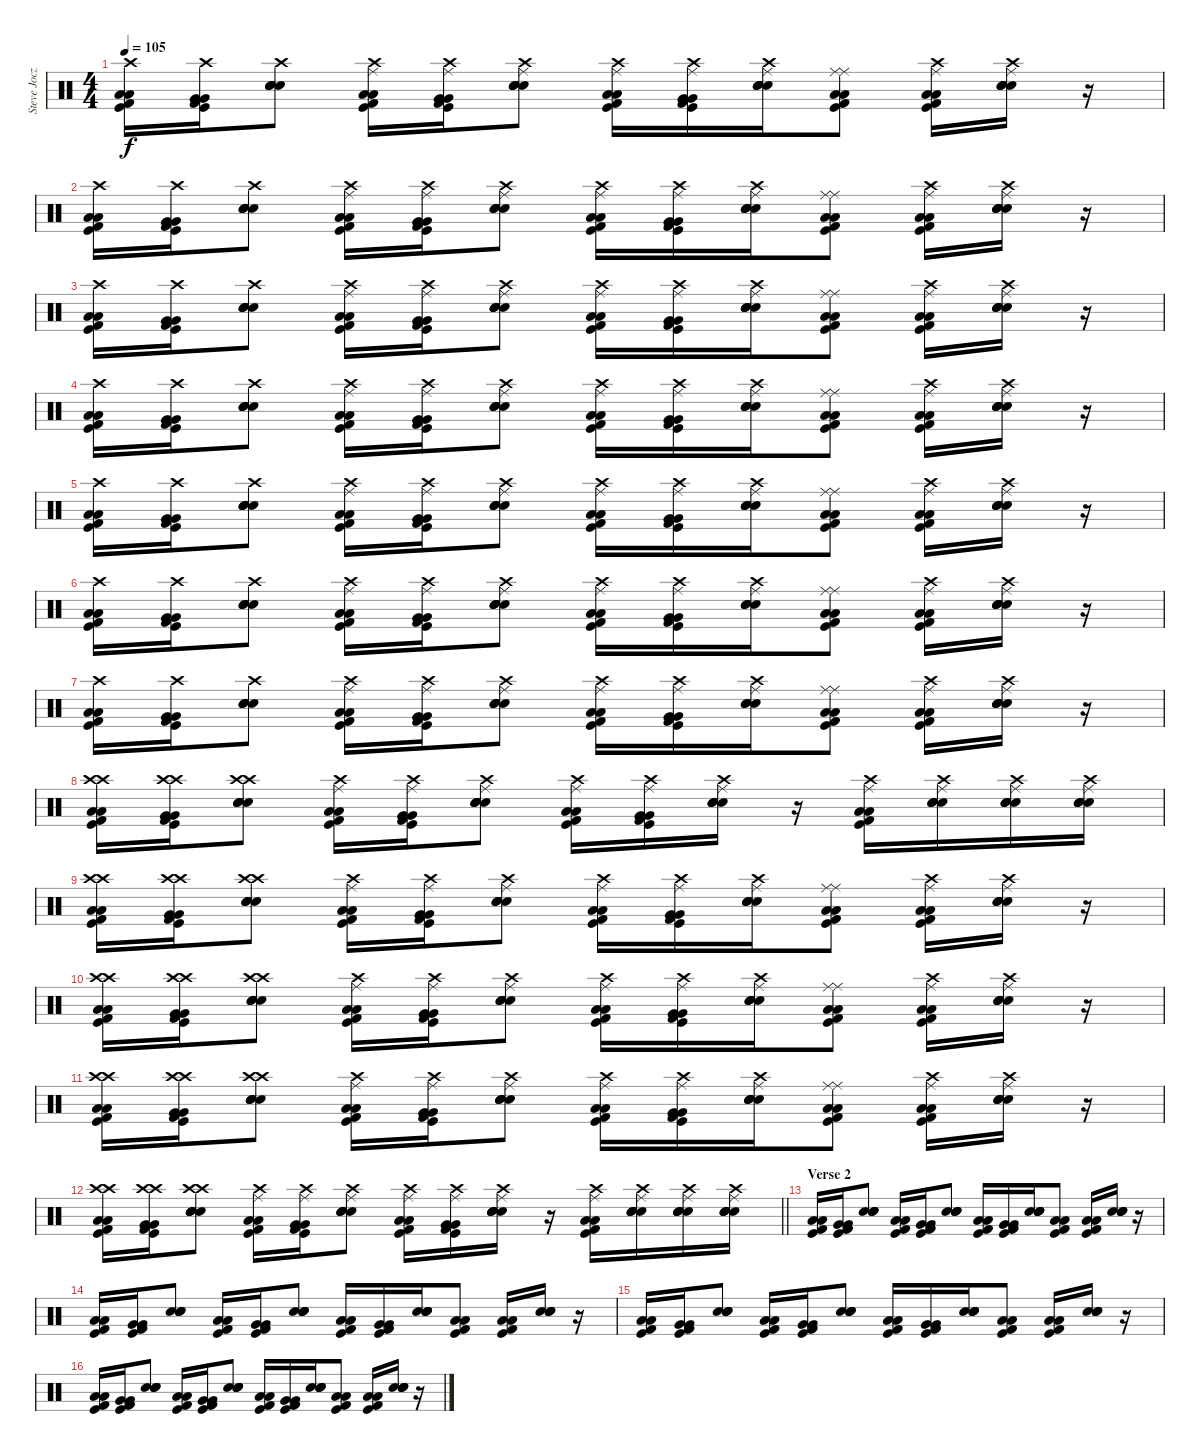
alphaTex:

\track ("Steve Jocz" "Steve Jocz") {instrument percussion}
\staff {score}
\articulation defaults
\ts (4 4)
\tempo 105
\clef neutral
\ks c
("Low Floor Tom (hit)" "Crash high (hit)" "Low Floor Tom (hit)" "Kick (hit)" "Kick (hit) 2").16{dy f} ("Very Low Tom (hit)" "Crash high (hit)" "Very Low Tom (hit)" "Kick (hit)" "Kick (hit) 2").16 ("Snare (hit) 2" "Crash high (hit)" "Snare (hit) 2" "Electric Snare (hit)" "Electric Snare (hit)").8 ("Low Floor Tom (hit)" "Ride (middle)" "Low Floor Tom (hit)" "Kick (hit)" "Crash high (hit)" "Kick (hit) 2").16 ("Very Low Tom (hit)" "Ride (middle)" "Very Low Tom (hit)" "Kick (hit)" "Crash high (hit)" "Kick (hit) 2").16 ("Snare (hit) 2" "Ride (middle)" "Snare (hit) 2" "Electric Snare (hit)" "Crash high (hit)" "Electric Snare (hit)").8 ("Low Floor Tom (hit)" "Ride (middle)" "Low Floor Tom (hit)" "Kick (hit)" "Crash high (hit)" "Kick (hit) 2").16 ("Very Low Tom (hit)" "Ride (middle)" "Very Low Tom (hit)" "Kick (hit)" "Crash high (hit)" "Kick (hit) 2").16 ("Snare (hit) 2" "Ride (middle)" "Snare (hit) 2" "Electric Snare (hit)" "Crash high (hit)" "Electric Snare (hit)").16 ("Low Floor Tom (hit)" "Ride (middle)" "Low Floor Tom (hit)" "Kick (hit)" "Ride (middle)" "Kick (hit) 2").8 ("Low Floor Tom (hit)" "Ride (middle)" "Low Floor Tom (hit)" "Kick (hit)" "Crash high (hit)" "Kick (hit) 2").16 ("Snare (hit) 2" "Ride (middle)" "Snare (hit) 2" "Electric Snare (hit)" "Crash high (hit)" "Electric Snare (hit)").16 r.16 |
("Low Floor Tom (hit)" "Crash high (hit)" "Low Floor Tom (hit)" "Kick (hit)" "Kick (hit) 2").16 ("Very Low Tom (hit)" "Crash high (hit)" "Very Low Tom (hit)" "Kick (hit)" "Kick (hit) 2").16 ("Snare (hit) 2" "Crash high (hit)" "Snare (hit) 2" "Electric Snare (hit)" "Electric Snare (hit)").8 ("Low Floor Tom (hit)" "Ride (middle)" "Low Floor Tom (hit)" "Kick (hit)" "Crash high (hit)" "Kick (hit) 2").16 ("Very Low Tom (hit)" "Ride (middle)" "Very Low Tom (hit)" "Kick (hit)" "Crash high (hit)" "Kick (hit) 2").16 ("Snare (hit) 2" "Ride (middle)" "Snare (hit) 2" "Electric Snare (hit)" "Crash high (hit)" "Electric Snare (hit)").8 ("Low Floor Tom (hit)" "Ride (middle)" "Low Floor Tom (hit)" "Kick (hit)" "Crash high (hit)" "Kick (hit) 2").16 ("Very Low Tom (hit)" "Ride (middle)" "Very Low Tom (hit)" "Kick (hit)" "Crash high (hit)" "Kick (hit) 2").16 ("Snare (hit) 2" "Ride (middle)" "Snare (hit) 2" "Electric Snare (hit)" "Crash high (hit)" "Electric Snare (hit)").16 ("Low Floor Tom (hit)" "Ride (middle)" "Low Floor Tom (hit)" "Kick (hit)" "Ride (middle)" "Kick (hit) 2").8 ("Low Floor Tom (hit)" "Ride (middle)" "Low Floor Tom (hit)" "Kick (hit)" "Crash high (hit)" "Kick (hit) 2").16 ("Snare (hit) 2" "Ride (middle)" "Snare (hit) 2" "Electric Snare (hit)" "Crash high (hit)" "Electric Snare (hit)").16 r.16 |
("Low Floor Tom (hit)" "Crash high (hit)" "Low Floor Tom (hit)" "Kick (hit)" "Kick (hit) 2").16 ("Very Low Tom (hit)" "Crash high (hit)" "Very Low Tom (hit)" "Kick (hit)" "Kick (hit) 2").16 ("Snare (hit) 2" "Crash high (hit)" "Snare (hit) 2" "Electric Snare (hit)" "Electric Snare (hit)").8 ("Low Floor Tom (hit)" "Ride (middle)" "Low Floor Tom (hit)" "Kick (hit)" "Crash high (hit)" "Kick (hit) 2").16 ("Very Low Tom (hit)" "Ride (middle)" "Very Low Tom (hit)" "Kick (hit)" "Crash high (hit)" "Kick (hit) 2").16 ("Snare (hit) 2" "Ride (middle)" "Snare (hit) 2" "Electric Snare (hit)" "Crash high (hit)" "Electric Snare (hit)").8 ("Low Floor Tom (hit)" "Ride (middle)" "Low Floor Tom (hit)" "Kick (hit)" "Crash high (hit)" "Kick (hit) 2").16 ("Very Low Tom (hit)" "Ride (middle)" "Very Low Tom (hit)" "Kick (hit)" "Crash high (hit)" "Kick (hit) 2").16 ("Snare (hit) 2" "Ride (middle)" "Snare (hit) 2" "Electric Snare (hit)" "Crash high (hit)" "Electric Snare (hit)").16 ("Low Floor Tom (hit)" "Ride (middle)" "Low Floor Tom (hit)" "Kick (hit)" "Ride (middle)" "Kick (hit) 2").8 ("Low Floor Tom (hit)" "Ride (middle)" "Low Floor Tom (hit)" "Kick (hit)" "Crash high (hit)" "Kick (hit) 2").16 ("Snare (hit) 2" "Ride (middle)" "Snare (hit) 2" "Electric Snare (hit)" "Crash high (hit)" "Electric Snare (hit)").16 r.16 |
("Low Floor Tom (hit)" "Crash high (hit)" "Low Floor Tom (hit)" "Kick (hit)" "Kick (hit) 2").16 ("Very Low Tom (hit)" "Crash high (hit)" "Very Low Tom (hit)" "Kick (hit)" "Kick (hit) 2").16 ("Snare (hit) 2" "Crash high (hit)" "Snare (hit) 2" "Electric Snare (hit)" "Electric Snare (hit)").8 ("Low Floor Tom (hit)" "Ride (middle)" "Low Floor Tom (hit)" "Kick (hit)" "Crash high (hit)" "Kick (hit) 2").16 ("Very Low Tom (hit)" "Ride (middle)" "Very Low Tom (hit)" "Kick (hit)" "Crash high (hit)" "Kick (hit) 2").16 ("Snare (hit) 2" "Ride (middle)" "Snare (hit) 2" "Electric Snare (hit)" "Crash high (hit)" "Electric Snare (hit)").8 ("Low Floor Tom (hit)" "Ride (middle)" "Low Floor Tom (hit)" "Kick (hit)" "Crash high (hit)" "Kick (hit) 2").16 ("Very Low Tom (hit)" "Ride (middle)" "Very Low Tom (hit)" "Kick (hit)" "Crash high (hit)" "Kick (hit) 2").16 ("Snare (hit) 2" "Ride (middle)" "Snare (hit) 2" "Electric Snare (hit)" "Crash high (hit)" "Electric Snare (hit)").16 ("Low Floor Tom (hit)" "Ride (middle)" "Low Floor Tom (hit)" "Kick (hit)" "Ride (middle)" "Kick (hit) 2").8 ("Low Floor Tom (hit)" "Ride (middle)" "Low Floor Tom (hit)" "Kick (hit)" "Crash high (hit)" "Kick (hit) 2").16 ("Snare (hit) 2" "Ride (middle)" "Snare (hit) 2" "Electric Snare (hit)" "Crash high (hit)" "Electric Snare (hit)").16 r.16 |
("Low Floor Tom (hit)" "Crash high (hit)" "Low Floor Tom (hit)" "Kick (hit)" "Kick (hit) 2").16 ("Very Low Tom (hit)" "Crash high (hit)" "Very Low Tom (hit)" "Kick (hit)" "Kick (hit) 2").16 ("Snare (hit) 2" "Crash high (hit)" "Snare (hit) 2" "Electric Snare (hit)" "Electric Snare (hit)").8 ("Low Floor Tom (hit)" "Ride (middle)" "Low Floor Tom (hit)" "Kick (hit)" "Crash high (hit)" "Kick (hit) 2").16 ("Very Low Tom (hit)" "Ride (middle)" "Very Low Tom (hit)" "Kick (hit)" "Crash high (hit)" "Kick (hit) 2").16 ("Snare (hit) 2" "Ride (middle)" "Snare (hit) 2" "Electric Snare (hit)" "Crash high (hit)" "Electric Snare (hit)").8 ("Low Floor Tom (hit)" "Ride (middle)" "Low Floor Tom (hit)" "Kick (hit)" "Crash high (hit)" "Kick (hit) 2").16 ("Very Low Tom (hit)" "Ride (middle)" "Very Low Tom (hit)" "Kick (hit)" "Crash high (hit)" "Kick (hit) 2").16 ("Snare (hit) 2" "Ride (middle)" "Snare (hit) 2" "Electric Snare (hit)" "Crash high (hit)" "Electric Snare (hit)").16 ("Low Floor Tom (hit)" "Ride (middle)" "Low Floor Tom (hit)" "Kick (hit)" "Ride (middle)" "Kick (hit) 2").8 ("Low Floor Tom (hit)" "Ride (middle)" "Low Floor Tom (hit)" "Kick (hit)" "Crash high (hit)" "Kick (hit) 2").16 ("Snare (hit) 2" "Ride (middle)" "Snare (hit) 2" "Electric Snare (hit)" "Crash high (hit)" "Electric Snare (hit)").16 r.16 |
("Low Floor Tom (hit)" "Crash high (hit)" "Low Floor Tom (hit)" "Kick (hit)" "Kick (hit) 2").16 ("Very Low Tom (hit)" "Crash high (hit)" "Very Low Tom (hit)" "Kick (hit)" "Kick (hit) 2").16 ("Snare (hit) 2" "Crash high (hit)" "Snare (hit) 2" "Electric Snare (hit)" "Electric Snare (hit)").8 ("Low Floor Tom (hit)" "Ride (middle)" "Low Floor Tom (hit)" "Kick (hit)" "Crash high (hit)" "Kick (hit) 2").16 ("Very Low Tom (hit)" "Ride (middle)" "Very Low Tom (hit)" "Kick (hit)" "Crash high (hit)" "Kick (hit) 2").16 ("Snare (hit) 2" "Ride (middle)" "Snare (hit) 2" "Electric Snare (hit)" "Crash high (hit)" "Electric Snare (hit)").8 ("Low Floor Tom (hit)" "Ride (middle)" "Low Floor Tom (hit)" "Kick (hit)" "Crash high (hit)" "Kick (hit) 2").16 ("Very Low Tom (hit)" "Ride (middle)" "Very Low Tom (hit)" "Kick (hit)" "Crash high (hit)" "Kick (hit) 2").16 ("Snare (hit) 2" "Ride (middle)" "Snare (hit) 2" "Electric Snare (hit)" "Crash high (hit)" "Electric Snare (hit)").16 ("Low Floor Tom (hit)" "Ride (middle)" "Low Floor Tom (hit)" "Kick (hit)" "Ride (middle)" "Kick (hit) 2").8 ("Low Floor Tom (hit)" "Ride (middle)" "Low Floor Tom (hit)" "Kick (hit)" "Crash high (hit)" "Kick (hit) 2").16 ("Snare (hit) 2" "Ride (middle)" "Snare (hit) 2" "Electric Snare (hit)" "Crash high (hit)" "Electric Snare (hit)").16 r.16 |
("Low Floor Tom (hit)" "Crash high (hit)" "Low Floor Tom (hit)" "Kick (hit)" "Kick (hit) 2").16 ("Very Low Tom (hit)" "Crash high (hit)" "Very Low Tom (hit)" "Kick (hit)" "Kick (hit) 2").16 ("Snare (hit) 2" "Crash high (hit)" "Snare (hit) 2" "Electric Snare (hit)" "Electric Snare (hit)").8 ("Low Floor Tom (hit)" "Ride (middle)" "Low Floor Tom (hit)" "Kick (hit)" "Crash high (hit)" "Kick (hit) 2").16 ("Very Low Tom (hit)" "Ride (middle)" "Very Low Tom (hit)" "Kick (hit)" "Crash high (hit)" "Kick (hit) 2").16 ("Snare (hit) 2" "Ride (middle)" "Snare (hit) 2" "Electric Snare (hit)" "Crash high (hit)" "Electric Snare (hit)").8 ("Low Floor Tom (hit)" "Ride (middle)" "Low Floor Tom (hit)" "Kick (hit)" "Crash high (hit)" "Kick (hit) 2").16 ("Very Low Tom (hit)" "Ride (middle)" "Very Low Tom (hit)" "Kick (hit)" "Crash high (hit)" "Kick (hit) 2").16 ("Snare (hit) 2" "Ride (middle)" "Snare (hit) 2" "Electric Snare (hit)" "Crash high (hit)" "Electric Snare (hit)").16 ("Low Floor Tom (hit)" "Ride (middle)" "Low Floor Tom (hit)" "Kick (hit)" "Ride (middle)" "Kick (hit) 2").8 ("Low Floor Tom (hit)" "Ride (middle)" "Low Floor Tom (hit)" "Kick (hit)" "Crash high (hit)" "Kick (hit) 2").16 ("Snare (hit) 2" "Ride (middle)" "Snare (hit) 2" "Electric Snare (hit)" "Crash high (hit)" "Electric Snare (hit)").16 r.16 |
("Low Floor Tom (hit)" "Crash high (hit)" "Low Floor Tom (hit)" "Kick (hit)" "Crash high (hit)" "Kick (hit) 2").16 ("Very Low Tom (hit)" "Crash high (hit)" "Very Low Tom (hit)" "Kick (hit)" "Crash high (hit)" "Kick (hit) 2").16 ("Snare (hit) 2" "Crash high (hit)" "Snare (hit) 2" "Electric Snare (hit)" "Crash high (hit)" "Electric Snare (hit)").8 ("Low Floor Tom (hit)" "Ride (middle)" "Low Floor Tom (hit)" "Kick (hit)" "Crash high (hit)" "Kick (hit) 2").16 ("Very Low Tom (hit)" "Ride (middle)" "Very Low Tom (hit)" "Kick (hit)" "Crash high (hit)" "Kick (hit) 2").16 ("Snare (hit) 2" "Ride (middle)" "Snare (hit) 2" "Electric Snare (hit)" "Crash high (hit)" "Electric Snare (hit)").8 ("Low Floor Tom (hit)" "Ride (middle)" "Low Floor Tom (hit)" "Kick (hit)" "Crash high (hit)" "Kick (hit) 2").16 ("Very Low Tom (hit)" "Ride (middle)" "Very Low Tom (hit)" "Kick (hit)" "Crash high (hit)" "Kick (hit) 2").16 ("Snare (hit) 2" "Ride (middle)" "Snare (hit) 2" "Electric Snare (hit)" "Crash high (hit)" "Electric Snare (hit)").16 r.16 ("Low Floor Tom (hit)" "Ride (middle)" "Low Floor Tom (hit)" "Kick (hit)" "Crash high (hit)" "Kick (hit) 2").16 ("Snare (hit) 2" "Ride (middle)" "Snare (hit) 2" "Electric Snare (hit)" "Crash high (hit)" "Electric Snare (hit)").16 ("Snare (hit) 2" "Ride (middle)" "Snare (hit) 2" "Electric Snare (hit)" "Crash high (hit)" "Electric Snare (hit)").16 ("Snare (hit) 2" "Ride (middle)" "Snare (hit) 2" "Electric Snare (hit)" "Crash high (hit)" "Electric Snare (hit)").16 |
("Low Floor Tom (hit)" "Crash high (hit)" "Low Floor Tom (hit)" "Kick (hit)" "Crash high (hit)" "Kick (hit) 2").16 ("Very Low Tom (hit)" "Crash high (hit)" "Very Low Tom (hit)" "Kick (hit)" "Crash high (hit)" "Kick (hit) 2").16 ("Snare (hit) 2" "Crash high (hit)" "Snare (hit) 2" "Electric Snare (hit)" "Crash high (hit)" "Electric Snare (hit)").8 ("Low Floor Tom (hit)" "Ride (middle)" "Low Floor Tom (hit)" "Kick (hit)" "Crash high (hit)" "Kick (hit) 2").16 ("Very Low Tom (hit)" "Ride (middle)" "Very Low Tom (hit)" "Kick (hit)" "Crash high (hit)" "Kick (hit) 2").16 ("Snare (hit) 2" "Ride (middle)" "Snare (hit) 2" "Electric Snare (hit)" "Crash high (hit)" "Electric Snare (hit)").8 ("Low Floor Tom (hit)" "Ride (middle)" "Low Floor Tom (hit)" "Kick (hit)" "Crash high (hit)" "Kick (hit) 2").16 ("Very Low Tom (hit)" "Ride (middle)" "Very Low Tom (hit)" "Kick (hit)" "Crash high (hit)" "Kick (hit) 2").16 ("Snare (hit) 2" "Ride (middle)" "Snare (hit) 2" "Electric Snare (hit)" "Crash high (hit)" "Electric Snare (hit)").16 ("Low Floor Tom (hit)" "Ride (middle)" "Low Floor Tom (hit)" "Kick (hit)" "Ride (middle)" "Kick (hit) 2").8 ("Low Floor Tom (hit)" "Ride (middle)" "Low Floor Tom (hit)" "Kick (hit)" "Crash high (hit)" "Kick (hit) 2").16 ("Snare (hit) 2" "Ride (middle)" "Snare (hit) 2" "Electric Snare (hit)" "Crash high (hit)" "Electric Snare (hit)").16 r.16 |
("Low Floor Tom (hit)" "Crash high (hit)" "Low Floor Tom (hit)" "Kick (hit)" "Crash high (hit)" "Kick (hit) 2").16 ("Very Low Tom (hit)" "Crash high (hit)" "Very Low Tom (hit)" "Kick (hit)" "Crash high (hit)" "Kick (hit) 2").16 ("Snare (hit) 2" "Crash high (hit)" "Snare (hit) 2" "Electric Snare (hit)" "Crash high (hit)" "Electric Snare (hit)").8 ("Low Floor Tom (hit)" "Ride (middle)" "Low Floor Tom (hit)" "Kick (hit)" "Crash high (hit)" "Kick (hit) 2").16 ("Very Low Tom (hit)" "Ride (middle)" "Very Low Tom (hit)" "Kick (hit)" "Crash high (hit)" "Kick (hit) 2").16 ("Snare (hit) 2" "Ride (middle)" "Snare (hit) 2" "Electric Snare (hit)" "Crash high (hit)" "Electric Snare (hit)").8 ("Low Floor Tom (hit)" "Ride (middle)" "Low Floor Tom (hit)" "Kick (hit)" "Crash high (hit)" "Kick (hit) 2").16 ("Very Low Tom (hit)" "Ride (middle)" "Very Low Tom (hit)" "Kick (hit)" "Crash high (hit)" "Kick (hit) 2").16 ("Snare (hit) 2" "Ride (middle)" "Snare (hit) 2" "Electric Snare (hit)" "Crash high (hit)" "Electric Snare (hit)").16 ("Low Floor Tom (hit)" "Ride (middle)" "Low Floor Tom (hit)" "Kick (hit)" "Ride (middle)" "Kick (hit) 2").8 ("Low Floor Tom (hit)" "Ride (middle)" "Low Floor Tom (hit)" "Kick (hit)" "Crash high (hit)" "Kick (hit) 2").16 ("Snare (hit) 2" "Ride (middle)" "Snare (hit) 2" "Electric Snare (hit)" "Crash high (hit)" "Electric Snare (hit)").16 r.16 |
("Low Floor Tom (hit)" "Crash high (hit)" "Low Floor Tom (hit)" "Kick (hit)" "Crash high (hit)" "Kick (hit) 2").16 ("Very Low Tom (hit)" "Crash high (hit)" "Very Low Tom (hit)" "Kick (hit)" "Crash high (hit)" "Kick (hit) 2").16 ("Snare (hit) 2" "Crash high (hit)" "Snare (hit) 2" "Electric Snare (hit)" "Crash high (hit)" "Electric Snare (hit)").8 ("Low Floor Tom (hit)" "Ride (middle)" "Low Floor Tom (hit)" "Kick (hit)" "Crash high (hit)" "Kick (hit) 2").16 ("Very Low Tom (hit)" "Ride (middle)" "Very Low Tom (hit)" "Kick (hit)" "Crash high (hit)" "Kick (hit) 2").16 ("Snare (hit) 2" "Ride (middle)" "Snare (hit) 2" "Electric Snare (hit)" "Crash high (hit)" "Electric Snare (hit)").8 ("Low Floor Tom (hit)" "Ride (middle)" "Low Floor Tom (hit)" "Kick (hit)" "Crash high (hit)" "Kick (hit) 2").16 ("Very Low Tom (hit)" "Ride (middle)" "Very Low Tom (hit)" "Kick (hit)" "Crash high (hit)" "Kick (hit) 2").16 ("Snare (hit) 2" "Ride (middle)" "Snare (hit) 2" "Electric Snare (hit)" "Crash high (hit)" "Electric Snare (hit)").16 ("Low Floor Tom (hit)" "Ride (middle)" "Low Floor Tom (hit)" "Kick (hit)" "Ride (middle)" "Kick (hit) 2").8 ("Low Floor Tom (hit)" "Ride (middle)" "Low Floor Tom (hit)" "Kick (hit)" "Crash high (hit)" "Kick (hit) 2").16 ("Snare (hit) 2" "Ride (middle)" "Snare (hit) 2" "Electric Snare (hit)" "Crash high (hit)" "Electric Snare (hit)").16 r.16 |
\barLineRight lightlight
("Low Floor Tom (hit)" "Crash high (hit)" "Low Floor Tom (hit)" "Kick (hit)" "Crash high (hit)" "Kick (hit) 2").16 ("Very Low Tom (hit)" "Crash high (hit)" "Very Low Tom (hit)" "Kick (hit)" "Crash high (hit)" "Kick (hit) 2").16 ("Snare (hit) 2" "Crash high (hit)" "Snare (hit) 2" "Electric Snare (hit)" "Crash high (hit)" "Electric Snare (hit)").8 ("Low Floor Tom (hit)" "Ride (middle)" "Low Floor Tom (hit)" "Kick (hit)" "Crash high (hit)" "Kick (hit) 2").16 ("Very Low Tom (hit)" "Ride (middle)" "Very Low Tom (hit)" "Kick (hit)" "Crash high (hit)" "Kick (hit) 2").16 ("Snare (hit) 2" "Ride (middle)" "Snare (hit) 2" "Electric Snare (hit)" "Crash high (hit)" "Electric Snare (hit)").8 ("Low Floor Tom (hit)" "Ride (middle)" "Low Floor Tom (hit)" "Kick (hit)" "Crash high (hit)" "Kick (hit) 2").16 ("Very Low Tom (hit)" "Ride (middle)" "Very Low Tom (hit)" "Kick (hit)" "Crash high (hit)" "Kick (hit) 2").16 ("Snare (hit) 2" "Ride (middle)" "Snare (hit) 2" "Electric Snare (hit)" "Crash high (hit)" "Electric Snare (hit)").16 r.16 ("Low Floor Tom (hit)" "Ride (middle)" "Low Floor Tom (hit)" "Kick (hit)" "Crash high (hit)" "Kick (hit) 2").16 ("Snare (hit) 2" "Ride (middle)" "Snare (hit) 2" "Electric Snare (hit)" "Crash high (hit)" "Electric Snare (hit)").16 ("Snare (hit) 2" "Ride (middle)" "Snare (hit) 2" "Electric Snare (hit)" "Crash high (hit)" "Electric Snare (hit)").16 ("Snare (hit) 2" "Ride (middle)" "Snare (hit) 2" "Electric Snare (hit)" "Crash high (hit)" "Electric Snare (hit)").16 |
\section ("" "Verse 2")
("Low Floor Tom (hit)" "Low Floor Tom (hit)" "Kick (hit)" "Kick (hit) 2").16 ("Very Low Tom (hit)" "Very Low Tom (hit)" "Kick (hit)" "Kick (hit) 2").16 ("Snare (hit) 2" "Snare (hit) 2" "Electric Snare (hit)" "Electric Snare (hit)").8 ("Low Floor Tom (hit)" "Low Floor Tom (hit)" "Kick (hit)" "Kick (hit) 2").16 ("Very Low Tom (hit)" "Very Low Tom (hit)" "Kick (hit)" "Kick (hit) 2").16 ("Snare (hit) 2" "Snare (hit) 2" "Electric Snare (hit)" "Electric Snare (hit)").8 ("Low Floor Tom (hit)" "Low Floor Tom (hit)" "Kick (hit)" "Kick (hit) 2").16 ("Very Low Tom (hit)" "Very Low Tom (hit)" "Kick (hit)" "Kick (hit) 2").16 ("Snare (hit) 2" "Snare (hit) 2" "Electric Snare (hit)" "Electric Snare (hit)").16 ("Low Floor Tom (hit)" "Low Floor Tom (hit)" "Kick (hit)" "Kick (hit) 2").8 ("Low Floor Tom (hit)" "Low Floor Tom (hit)" "Kick (hit)" "Kick (hit) 2").16 ("Snare (hit) 2" "Snare (hit) 2" "Electric Snare (hit)" "Electric Snare (hit)").16 r.16 |
("Low Floor Tom (hit)" "Low Floor Tom (hit)" "Kick (hit)" "Kick (hit) 2").16 ("Very Low Tom (hit)" "Very Low Tom (hit)" "Kick (hit)" "Kick (hit) 2").16 ("Snare (hit) 2" "Snare (hit) 2" "Electric Snare (hit)" "Electric Snare (hit)").8 ("Low Floor Tom (hit)" "Low Floor Tom (hit)" "Kick (hit)" "Kick (hit) 2").16 ("Very Low Tom (hit)" "Very Low Tom (hit)" "Kick (hit)" "Kick (hit) 2").16 ("Snare (hit) 2" "Snare (hit) 2" "Electric Snare (hit)" "Electric Snare (hit)").8 ("Low Floor Tom (hit)" "Low Floor Tom (hit)" "Kick (hit)" "Kick (hit) 2").16 ("Very Low Tom (hit)" "Very Low Tom (hit)" "Kick (hit)" "Kick (hit) 2").16 ("Snare (hit) 2" "Snare (hit) 2" "Electric Snare (hit)" "Electric Snare (hit)").16 ("Low Floor Tom (hit)" "Low Floor Tom (hit)" "Kick (hit)" "Kick (hit) 2").8 ("Low Floor Tom (hit)" "Low Floor Tom (hit)" "Kick (hit)" "Kick (hit) 2").16 ("Snare (hit) 2" "Snare (hit) 2" "Electric Snare (hit)" "Electric Snare (hit)").16 r.16 |
("Low Floor Tom (hit)" "Low Floor Tom (hit)" "Kick (hit)" "Kick (hit) 2").16 ("Very Low Tom (hit)" "Very Low Tom (hit)" "Kick (hit)" "Kick (hit) 2").16 ("Snare (hit) 2" "Snare (hit) 2" "Electric Snare (hit)" "Electric Snare (hit)").8 ("Low Floor Tom (hit)" "Low Floor Tom (hit)" "Kick (hit)" "Kick (hit) 2").16 ("Very Low Tom (hit)" "Very Low Tom (hit)" "Kick (hit)" "Kick (hit) 2").16 ("Snare (hit) 2" "Snare (hit) 2" "Electric Snare (hit)" "Electric Snare (hit)").8 ("Low Floor Tom (hit)" "Low Floor Tom (hit)" "Kick (hit)" "Kick (hit) 2").16 ("Very Low Tom (hit)" "Very Low Tom (hit)" "Kick (hit)" "Kick (hit) 2").16 ("Snare (hit) 2" "Snare (hit) 2" "Electric Snare (hit)" "Electric Snare (hit)").16 ("Low Floor Tom (hit)" "Low Floor Tom (hit)" "Kick (hit)" "Kick (hit) 2").8 ("Low Floor Tom (hit)" "Low Floor Tom (hit)" "Kick (hit)" "Kick (hit) 2").16 ("Snare (hit) 2" "Snare (hit) 2" "Electric Snare (hit)" "Electric Snare (hit)").16 r.16 |
("Low Floor Tom (hit)" "Low Floor Tom (hit)" "Kick (hit)" "Kick (hit) 2").16 ("Very Low Tom (hit)" "Very Low Tom (hit)" "Kick (hit)" "Kick (hit) 2").16 ("Snare (hit) 2" "Snare (hit) 2" "Electric Snare (hit)" "Electric Snare (hit)").8 ("Low Floor Tom (hit)" "Low Floor Tom (hit)" "Kick (hit)" "Kick (hit) 2").16 ("Very Low Tom (hit)" "Very Low Tom (hit)" "Kick (hit)" "Kick (hit) 2").16 ("Snare (hit) 2" "Snare (hit) 2" "Electric Snare (hit)" "Electric Snare (hit)").8 ("Low Floor Tom (hit)" "Low Floor Tom (hit)" "Kick (hit)" "Kick (hit) 2").16 ("Very Low Tom (hit)" "Very Low Tom (hit)" "Kick (hit)" "Kick (hit) 2").16 ("Snare (hit) 2" "Snare (hit) 2" "Electric Snare (hit)" "Electric Snare (hit)").16 ("Low Floor Tom (hit)" "Low Floor Tom (hit)" "Kick (hit)" "Kick (hit) 2").8 ("Low Floor Tom (hit)" "Low Floor Tom (hit)" "Kick (hit)" "Kick (hit) 2").16 ("Snare (hit) 2" "Snare (hit) 2" "Electric Snare (hit)" "Electric Snare (hit)").16 r.16
